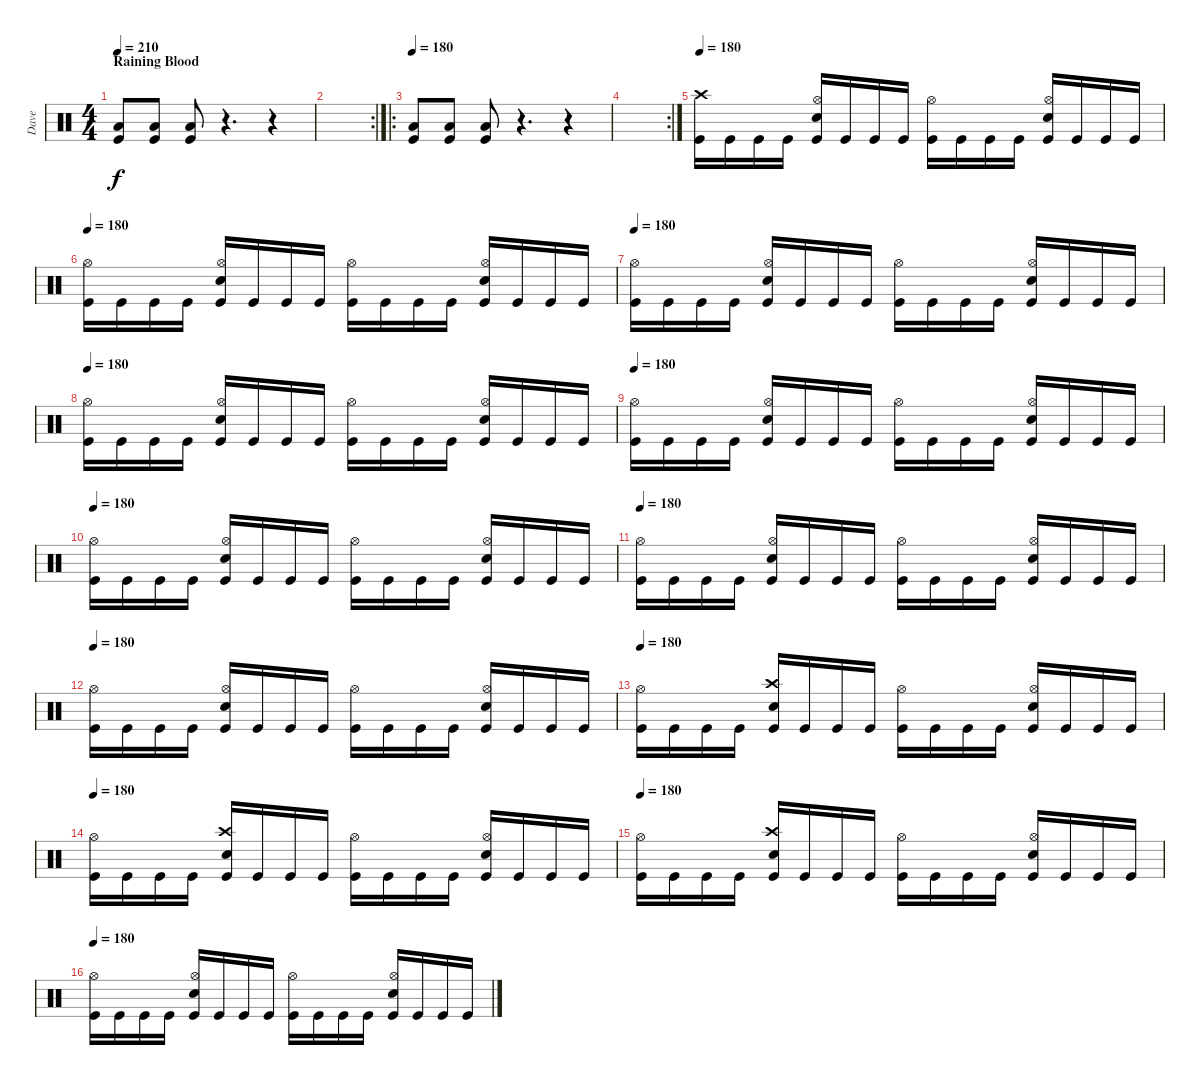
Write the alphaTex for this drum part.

\track ("Dave" "Dave") {instrument percussion}
\staff {score}
\articulation defaults
\ts (4 4)
\section ("" "Raining Blood")
\tempo 210
\tempo 180
\tempo 210
\clef neutral
\ks c
("Low Floor Tom (hit)" "Kick (hit)").8{dy f} ("Low Floor Tom (hit)" "Kick (hit)").8 ("Low Floor Tom (hit)" "Kick (hit)").8 r.4{d} r.4 |
\rc 2
|
\ro
\tempo 180
("Low Floor Tom (hit)" "Kick (hit)").8 ("Low Floor Tom (hit)" "Kick (hit)").8 ("Low Floor Tom (hit)" "Kick (hit)").8 r.4{d} r.4 |
\rc 2
|
\tempo 180
("Crash high (hit)" "Kick (hit)").16 "Kick (hit)".16 "Kick (hit)".16 "Kick (hit)".16 ("Hi-Hat (open)" "Snare (hit) 2" "Kick (hit)").16 "Kick (hit)".16 "Kick (hit)".16 "Kick (hit)".16 ("Hi-Hat (open)" "Kick (hit)").16 "Kick (hit)".16 "Kick (hit)".16 "Kick (hit)".16 ("Hi-Hat (open)" "Snare (hit) 2" "Kick (hit)").16 "Kick (hit)".16 "Kick (hit)".16 "Kick (hit)".16 |
\tempo 180
("Hi-Hat (open)" "Kick (hit)").16 "Kick (hit)".16 "Kick (hit)".16 "Kick (hit)".16 ("Hi-Hat (open)" "Snare (hit) 2" "Kick (hit)").16 "Kick (hit)".16 "Kick (hit)".16 "Kick (hit)".16 ("Hi-Hat (open)" "Kick (hit)").16 "Kick (hit)".16 "Kick (hit)".16 "Kick (hit)".16 ("Hi-Hat (open)" "Snare (hit) 2" "Kick (hit)").16 "Kick (hit)".16 "Kick (hit)".16 "Kick (hit)".16 |
\tempo 180
("Hi-Hat (open)" "Kick (hit)").16 "Kick (hit)".16 "Kick (hit)".16 "Kick (hit)".16 ("Hi-Hat (open)" "Snare (hit) 2" "Kick (hit)").16 "Kick (hit)".16 "Kick (hit)".16 "Kick (hit)".16 ("Hi-Hat (open)" "Kick (hit)").16 "Kick (hit)".16 "Kick (hit)".16 "Kick (hit)".16 ("Hi-Hat (open)" "Snare (hit) 2" "Kick (hit)").16 "Kick (hit)".16 "Kick (hit)".16 "Kick (hit)".16 |
\tempo 180
("Hi-Hat (open)" "Kick (hit)").16 "Kick (hit)".16 "Kick (hit)".16 "Kick (hit)".16 ("Hi-Hat (open)" "Snare (hit) 2" "Kick (hit)").16 "Kick (hit)".16 "Kick (hit)".16 "Kick (hit)".16 ("Hi-Hat (open)" "Kick (hit)").16 "Kick (hit)".16 "Kick (hit)".16 "Kick (hit)".16 ("Hi-Hat (open)" "Snare (hit) 2" "Kick (hit)").16 "Kick (hit)".16 "Kick (hit)".16 "Kick (hit)".16 |
\tempo 180
("Hi-Hat (open)" "Kick (hit)").16 "Kick (hit)".16 "Kick (hit)".16 "Kick (hit)".16 ("Hi-Hat (open)" "Snare (hit) 2" "Kick (hit)").16 "Kick (hit)".16 "Kick (hit)".16 "Kick (hit)".16 ("Hi-Hat (open)" "Kick (hit)").16 "Kick (hit)".16 "Kick (hit)".16 "Kick (hit)".16 ("Hi-Hat (open)" "Snare (hit) 2" "Kick (hit)").16 "Kick (hit)".16 "Kick (hit)".16 "Kick (hit)".16 |
\tempo 180
("Hi-Hat (open)" "Kick (hit)").16 "Kick (hit)".16 "Kick (hit)".16 "Kick (hit)".16 ("Hi-Hat (open)" "Snare (hit) 2" "Kick (hit)").16 "Kick (hit)".16 "Kick (hit)".16 "Kick (hit)".16 ("Hi-Hat (open)" "Kick (hit)").16 "Kick (hit)".16 "Kick (hit)".16 "Kick (hit)".16 ("Hi-Hat (open)" "Snare (hit) 2" "Kick (hit)").16 "Kick (hit)".16 "Kick (hit)".16 "Kick (hit)".16 |
\tempo 180
("Hi-Hat (open)" "Kick (hit)").16 "Kick (hit)".16 "Kick (hit)".16 "Kick (hit)".16 ("Hi-Hat (open)" "Snare (hit) 2" "Kick (hit)").16 "Kick (hit)".16 "Kick (hit)".16 "Kick (hit)".16 ("Hi-Hat (open)" "Kick (hit)").16 "Kick (hit)".16 "Kick (hit)".16 "Kick (hit)".16 ("Hi-Hat (open)" "Snare (hit) 2" "Kick (hit)").16 "Kick (hit)".16 "Kick (hit)".16 "Kick (hit)".16 |
\tempo 180
("Hi-Hat (open)" "Kick (hit)").16 "Kick (hit)".16 "Kick (hit)".16 "Kick (hit)".16 ("Hi-Hat (open)" "Snare (hit) 2" "Kick (hit)").16 "Kick (hit)".16 "Kick (hit)".16 "Kick (hit)".16 ("Hi-Hat (open)" "Kick (hit)").16 "Kick (hit)".16 "Kick (hit)".16 "Kick (hit)".16 ("Hi-Hat (open)" "Snare (hit) 2" "Kick (hit)").16 "Kick (hit)".16 "Kick (hit)".16 "Kick (hit)".16 |
\tempo 180
("Hi-Hat (open)" "Kick (hit)").16 "Kick (hit)".16 "Kick (hit)".16 "Kick (hit)".16 ("Crash high (hit)" "Snare (hit) 2" "Kick (hit)").16 "Kick (hit)".16 "Kick (hit)".16 "Kick (hit)".16 ("Hi-Hat (open)" "Kick (hit)").16 "Kick (hit)".16 "Kick (hit)".16 "Kick (hit)".16 ("Hi-Hat (open)" "Snare (hit) 2" "Kick (hit)").16 "Kick (hit)".16 "Kick (hit)".16 "Kick (hit)".16 |
\tempo 180
("Hi-Hat (open)" "Kick (hit)").16 "Kick (hit)".16 "Kick (hit)".16 "Kick (hit)".16 ("Crash high (hit)" "Snare (hit) 2" "Kick (hit)").16 "Kick (hit)".16 "Kick (hit)".16 "Kick (hit)".16 ("Hi-Hat (open)" "Kick (hit)").16 "Kick (hit)".16 "Kick (hit)".16 "Kick (hit)".16 ("Hi-Hat (open)" "Snare (hit) 2" "Kick (hit)").16 "Kick (hit)".16 "Kick (hit)".16 "Kick (hit)".16 |
\tempo 180
("Hi-Hat (open)" "Kick (hit)").16 "Kick (hit)".16 "Kick (hit)".16 "Kick (hit)".16 ("Crash high (hit)" "Snare (hit) 2" "Kick (hit)").16 "Kick (hit)".16 "Kick (hit)".16 "Kick (hit)".16 ("Hi-Hat (open)" "Kick (hit)").16 "Kick (hit)".16 "Kick (hit)".16 "Kick (hit)".16 ("Hi-Hat (open)" "Snare (hit) 2" "Kick (hit)").16 "Kick (hit)".16 "Kick (hit)".16 "Kick (hit)".16 |
\tempo 180
("Hi-Hat (open)" "Kick (hit)").16 "Kick (hit)".16 "Kick (hit)".16 "Kick (hit)".16 ("Hi-Hat (open)" "Snare (hit) 2" "Kick (hit)").16 "Kick (hit)".16 "Kick (hit)".16 "Kick (hit)".16 ("Hi-Hat (open)" "Kick (hit)").16 "Kick (hit)".16 "Kick (hit)".16 "Kick (hit)".16 ("Hi-Hat (open)" "Snare (hit) 2" "Kick (hit)").16 "Kick (hit)".16 "Kick (hit)".16 "Kick (hit)".16
